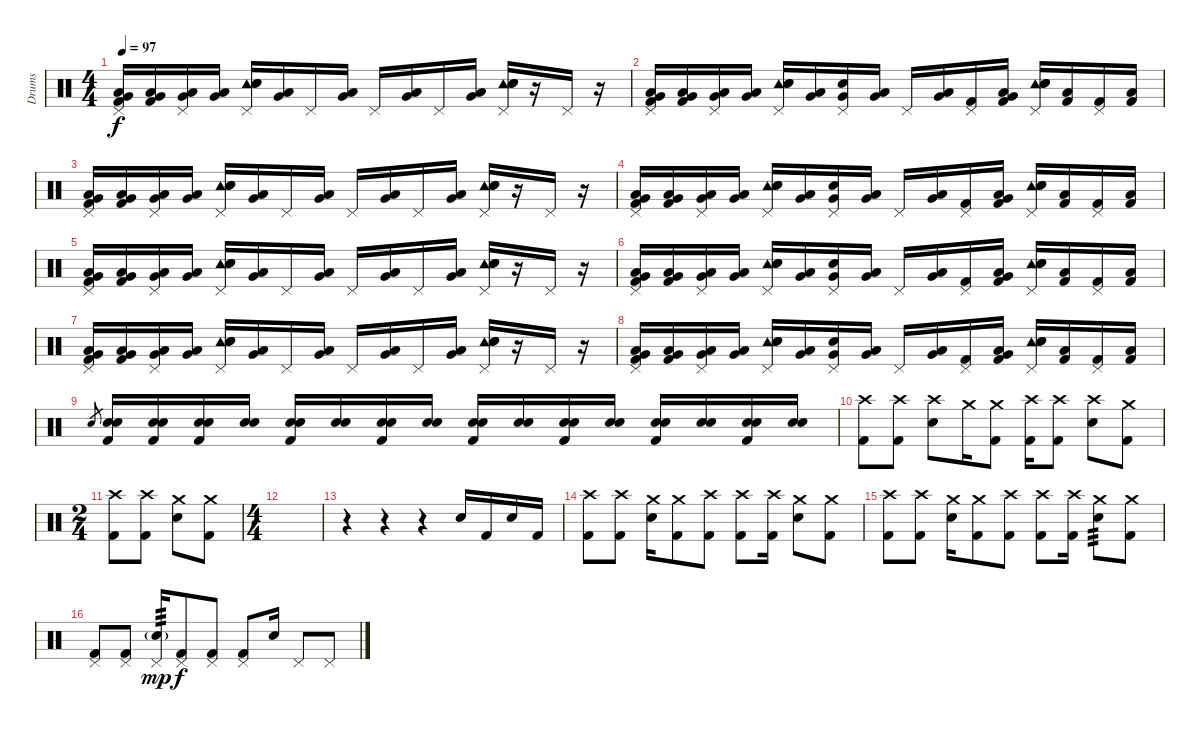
\track ("Drums" "Drums") {instrument percussion}
\staff {score}
\articulation defaults
\ts (4 4)
\tempo 97
\clef neutral
\ks c
("Pedal Hi-Hat (hit)" "Low Tom (hit)" "Very Low Tom (hit)" "Kick (hit) 2").16{dy f} ("Low Tom (hit)" "Very Low Tom (hit)" "Kick (hit) 2").16 ("Pedal Hi-Hat (hit)" "Low Tom (hit)" "Very Low Tom (hit)").16 ("Low Tom (hit)" "Very Low Tom (hit)").16 ("Pedal Hi-Hat (hit)" "Tambourine (hit)" "Snare (hit) 2" "Electric Snare (hit)").16 ("Low Tom (hit)" "Very Low Tom (hit)").16 "Pedal Hi-Hat (hit)".16 ("Low Tom (hit)" "Very Low Tom (hit)").16 "Pedal Hi-Hat (hit)".16 ("Low Tom (hit)" "Very Low Tom (hit)").16 "Pedal Hi-Hat (hit)".16 ("Low Tom (hit)" "Very Low Tom (hit)").16 ("Pedal Hi-Hat (hit)" "Tambourine (hit)" "Snare (hit) 2" "Electric Snare (hit)").16 r.16 "Pedal Hi-Hat (hit)".16 r.16 |
("Pedal Hi-Hat (hit)" "Low Tom (hit)" "Very Low Tom (hit)" "Kick (hit) 2").16 ("Low Tom (hit)" "Very Low Tom (hit)" "Kick (hit) 2").16 ("Pedal Hi-Hat (hit)" "Low Tom (hit)" "Very Low Tom (hit)").16 ("Low Tom (hit)" "Very Low Tom (hit)").16 ("Pedal Hi-Hat (hit)" "Tambourine (hit)" "Snare (hit) 2" "Electric Snare (hit)").16 ("Low Tom (hit)" "Very Low Tom (hit)").16 ("Pedal Hi-Hat (hit)" "Snare (hit)" "Very Low Tom (hit)").16 ("Low Tom (hit)" "Very Low Tom (hit)").16 "Pedal Hi-Hat (hit)".16 ("Low Tom (hit)" "Very Low Tom (hit)").16 ("Pedal Hi-Hat (hit)" "Kick (hit) 2").16 ("Low Tom (hit)" "Very Low Tom (hit)" "Kick (hit) 2").16 ("Pedal Hi-Hat (hit)" "Tambourine (hit)" "Snare (hit) 2" "Electric Snare (hit)").16 ("Low Tom (hit)" "Kick (hit) 2").16 ("Pedal Hi-Hat (hit)" "Kick (hit) 2").16 ("Low Tom (hit)" "Kick (hit) 2").16 |
("Pedal Hi-Hat (hit)" "Low Tom (hit)" "Very Low Tom (hit)" "Kick (hit) 2").16 ("Low Tom (hit)" "Very Low Tom (hit)" "Kick (hit) 2").16 ("Pedal Hi-Hat (hit)" "Low Tom (hit)" "Very Low Tom (hit)").16 ("Low Tom (hit)" "Very Low Tom (hit)").16 ("Pedal Hi-Hat (hit)" "Tambourine (hit)" "Snare (hit) 2" "Electric Snare (hit)").16 ("Low Tom (hit)" "Very Low Tom (hit)").16 "Pedal Hi-Hat (hit)".16 ("Low Tom (hit)" "Very Low Tom (hit)").16 "Pedal Hi-Hat (hit)".16 ("Low Tom (hit)" "Very Low Tom (hit)").16 "Pedal Hi-Hat (hit)".16 ("Low Tom (hit)" "Very Low Tom (hit)").16 ("Pedal Hi-Hat (hit)" "Tambourine (hit)" "Snare (hit) 2" "Electric Snare (hit)").16 r.16 "Pedal Hi-Hat (hit)".16 r.16 |
("Pedal Hi-Hat (hit)" "Low Tom (hit)" "Very Low Tom (hit)" "Kick (hit) 2").16 ("Low Tom (hit)" "Very Low Tom (hit)" "Kick (hit) 2").16 ("Pedal Hi-Hat (hit)" "Low Tom (hit)" "Very Low Tom (hit)").16 ("Low Tom (hit)" "Very Low Tom (hit)").16 ("Pedal Hi-Hat (hit)" "Tambourine (hit)" "Snare (hit) 2" "Electric Snare (hit)").16 ("Low Tom (hit)" "Very Low Tom (hit)").16 ("Pedal Hi-Hat (hit)" "Snare (hit)" "Very Low Tom (hit)").16 ("Low Tom (hit)" "Very Low Tom (hit)").16 "Pedal Hi-Hat (hit)".16 ("Low Tom (hit)" "Very Low Tom (hit)").16 ("Pedal Hi-Hat (hit)" "Kick (hit) 2").16 ("Low Tom (hit)" "Very Low Tom (hit)" "Kick (hit) 2").16 ("Pedal Hi-Hat (hit)" "Tambourine (hit)" "Snare (hit) 2" "Electric Snare (hit)").16 ("Low Tom (hit)" "Kick (hit) 2").16 ("Pedal Hi-Hat (hit)" "Kick (hit) 2").16 ("Low Tom (hit)" "Kick (hit) 2").16 |
("Pedal Hi-Hat (hit)" "Low Tom (hit)" "Very Low Tom (hit)" "Kick (hit) 2").16 ("Low Tom (hit)" "Very Low Tom (hit)" "Kick (hit) 2").16 ("Pedal Hi-Hat (hit)" "Low Tom (hit)" "Very Low Tom (hit)").16 ("Low Tom (hit)" "Very Low Tom (hit)").16 ("Pedal Hi-Hat (hit)" "Tambourine (hit)" "Snare (hit) 2" "Electric Snare (hit)").16 ("Low Tom (hit)" "Very Low Tom (hit)").16 "Pedal Hi-Hat (hit)".16 ("Low Tom (hit)" "Very Low Tom (hit)").16 "Pedal Hi-Hat (hit)".16 ("Low Tom (hit)" "Very Low Tom (hit)").16 "Pedal Hi-Hat (hit)".16 ("Low Tom (hit)" "Very Low Tom (hit)").16 ("Pedal Hi-Hat (hit)" "Tambourine (hit)" "Snare (hit) 2" "Electric Snare (hit)").16 r.16 "Pedal Hi-Hat (hit)".16 r.16 |
("Pedal Hi-Hat (hit)" "Low Tom (hit)" "Very Low Tom (hit)" "Kick (hit) 2").16 ("Low Tom (hit)" "Very Low Tom (hit)" "Kick (hit) 2").16 ("Pedal Hi-Hat (hit)" "Low Tom (hit)" "Very Low Tom (hit)").16 ("Low Tom (hit)" "Very Low Tom (hit)").16 ("Pedal Hi-Hat (hit)" "Tambourine (hit)" "Snare (hit) 2" "Electric Snare (hit)").16 ("Low Tom (hit)" "Very Low Tom (hit)").16 ("Pedal Hi-Hat (hit)" "Snare (hit)" "Very Low Tom (hit)").16 ("Low Tom (hit)" "Very Low Tom (hit)").16 "Pedal Hi-Hat (hit)".16 ("Low Tom (hit)" "Very Low Tom (hit)").16 ("Pedal Hi-Hat (hit)" "Kick (hit) 2").16 ("Low Tom (hit)" "Very Low Tom (hit)" "Kick (hit) 2").16 ("Pedal Hi-Hat (hit)" "Tambourine (hit)" "Snare (hit) 2" "Electric Snare (hit)").16 ("Low Tom (hit)" "Kick (hit) 2").16 ("Pedal Hi-Hat (hit)" "Kick (hit) 2").16 ("Low Tom (hit)" "Kick (hit) 2").16 |
("Pedal Hi-Hat (hit)" "Low Tom (hit)" "Very Low Tom (hit)" "Kick (hit) 2").16 ("Low Tom (hit)" "Very Low Tom (hit)" "Kick (hit) 2").16 ("Pedal Hi-Hat (hit)" "Low Tom (hit)" "Very Low Tom (hit)").16 ("Low Tom (hit)" "Very Low Tom (hit)").16 ("Pedal Hi-Hat (hit)" "Tambourine (hit)" "Snare (hit) 2" "Electric Snare (hit)").16 ("Low Tom (hit)" "Very Low Tom (hit)").16 "Pedal Hi-Hat (hit)".16 ("Low Tom (hit)" "Very Low Tom (hit)").16 "Pedal Hi-Hat (hit)".16 ("Low Tom (hit)" "Very Low Tom (hit)").16 "Pedal Hi-Hat (hit)".16 ("Low Tom (hit)" "Very Low Tom (hit)").16 ("Pedal Hi-Hat (hit)" "Tambourine (hit)" "Snare (hit) 2" "Electric Snare (hit)").16 r.16 "Pedal Hi-Hat (hit)".16 r.16 |
("Pedal Hi-Hat (hit)" "Low Tom (hit)" "Very Low Tom (hit)" "Kick (hit) 2").16 ("Low Tom (hit)" "Very Low Tom (hit)" "Kick (hit) 2").16 ("Pedal Hi-Hat (hit)" "Low Tom (hit)" "Very Low Tom (hit)").16 ("Low Tom (hit)" "Very Low Tom (hit)").16 ("Pedal Hi-Hat (hit)" "Tambourine (hit)" "Snare (hit) 2" "Electric Snare (hit)").16 ("Low Tom (hit)" "Very Low Tom (hit)").16 ("Pedal Hi-Hat (hit)" "Snare (hit)" "Very Low Tom (hit)").16 ("Low Tom (hit)" "Very Low Tom (hit)").16 "Pedal Hi-Hat (hit)".16 ("Low Tom (hit)" "Very Low Tom (hit)").16 ("Pedal Hi-Hat (hit)" "Kick (hit) 2").16 ("Low Tom (hit)" "Very Low Tom (hit)" "Kick (hit) 2").16 ("Pedal Hi-Hat (hit)" "Tambourine (hit)" "Snare (hit) 2" "Electric Snare (hit)").16 ("Low Tom (hit)" "Kick (hit) 2").16 ("Pedal Hi-Hat (hit)" "Kick (hit) 2").16 ("Low Tom (hit)" "Kick (hit) 2").16 |
"Snare (hit) 2".8{gr} ("Snare (hit) 2" "Snare (hit) 2" "Kick (hit) 2").16 ("Snare (hit) 2" "Snare (hit) 2" "Kick (hit) 2").16 ("Snare (hit) 2" "Snare (hit) 2" "Kick (hit) 2").16 ("Snare (hit) 2" "Snare (hit) 2").16 ("Snare (hit) 2" "Snare (hit) 2" "Kick (hit) 2").16 ("Snare (hit) 2" "Snare (hit) 2").16 ("Snare (hit) 2" "Snare (hit) 2" "Kick (hit) 2").16 ("Snare (hit) 2" "Snare (hit) 2").16 ("Snare (hit) 2" "Snare (hit) 2" "Kick (hit) 2").16 ("Snare (hit) 2" "Snare (hit) 2").16 ("Snare (hit) 2" "Snare (hit) 2" "Kick (hit) 2").16 ("Snare (hit) 2" "Snare (hit) 2").16 ("Snare (hit) 2" "Snare (hit) 2" "Kick (hit) 2").16 ("Snare (hit) 2" "Snare (hit) 2").16 ("Snare (hit) 2" "Snare (hit) 2" "Kick (hit) 2").16 ("Snare (hit) 2" "Snare (hit) 2").16 |
("Crash high (hit)" "Kick (hit) 2").8 ("Crash high (hit)" "Kick (hit) 2").8 ("Crash high (hit)" "Snare (hit) 2").8 "Crash medium (hit)".16 ("Crash medium (hit)" "Kick (hit) 2").8 ("Crash high (hit)" "Kick (hit) 2").16 ("Crash high (hit)" "Kick (hit) 2").8 ("Crash high (hit)" "Snare (hit) 2").8 ("Crash medium (hit)" "Kick (hit) 2").8 |
\ts (2 4)
("Crash high (hit)" "Kick (hit) 2").8 ("Crash high (hit)" "Kick (hit) 2").8 ("Crash medium (hit)" "Snare (hit) 2").8 ("Crash medium (hit)" "Kick (hit) 2").8 |
\ts (4 4)
|
r.4 r.4 r.4 "Snare (hit) 2".16 "Kick (hit) 2".16 "Snare (hit) 2".16 "Kick (hit) 2".16 |
("Crash high (hit)" "Kick (hit) 2").8{volume 16} ("Crash high (hit)" "Kick (hit) 2").8 ("Crash medium (hit)" "Snare (hit) 2").16 ("Crash medium (hit)" "Kick (hit) 2").8 ("Crash high (hit)" "Kick (hit) 2").8 ("Crash high (hit)" "Kick (hit) 2").8 ("Crash high (hit)" "Kick (hit) 2").16 ("Crash medium (hit)" "Snare (hit) 2").8 ("Crash medium (hit)" "Kick (hit) 2").8 |
("Crash high (hit)" "Kick (hit) 2").8 ("Crash high (hit)" "Kick (hit) 2").8 ("Crash medium (hit)" "Snare (hit) 2").16 ("Crash medium (hit)" "Kick (hit) 2").8 ("Crash high (hit)" "Kick (hit) 2").8 ("Crash high (hit)" "Kick (hit) 2").8 ("Crash high (hit)" "Kick (hit) 2").16 ("Crash medium (hit)" "Snare (hit) 2").8{tp 3} ("Crash medium (hit)" "Kick (hit) 2").8 |
("Pedal Hi-Hat (hit)" "Kick (hit) 2").8 ("Pedal Hi-Hat (hit)" "Kick (hit) 2").8 ("Pedal Hi-Hat (hit)" "Snare (hit) 2"{g}).16{tp 3 dy mp} ("Pedal Hi-Hat (hit)" "Kick (hit) 2").8{dy f} ("Pedal Hi-Hat (hit)" "Kick (hit) 2").8 ("Pedal Hi-Hat (hit)" "Kick (hit) 2").8 "Snare (hit) 2".16 "Pedal Hi-Hat (hit)".8 "Pedal Hi-Hat (hit)".8
